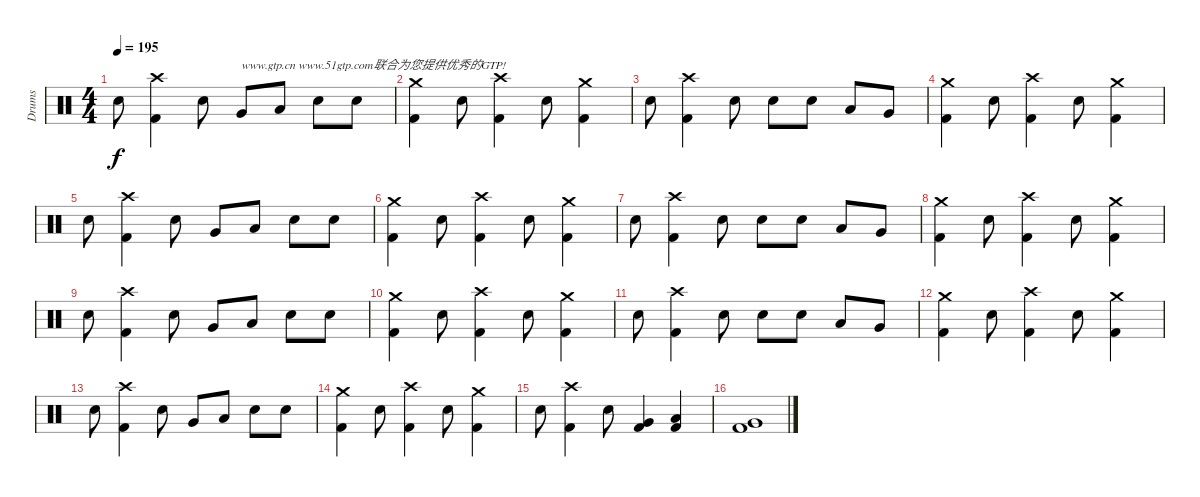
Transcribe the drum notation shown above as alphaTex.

\track ("Drums" "Drums") {instrument percussion}
\staff {score}
\articulation defaults
\ts (4 4)
\tempo 195
\clef neutral
\ks c "Snare (hit) 2".8{dy f}
("Crash high (hit)" "Kick (hit) 2").4 "Snare (hit) 2".8 "Very Low Tom (hit)".8{txt "www.gtp.cn www.51gtp.com联合为您提供优秀的GTP!"} "Low Tom (hit)".8 "Snare (hit) 2".8 "Snare (hit) 2".8 |
("Crash medium (hit)" "Kick (hit) 2").4 "Snare (hit) 2".8 ("Crash high (hit)" "Kick (hit) 2").4 "Snare (hit) 2".8 ("Crash medium (hit)" "Kick (hit) 2").4 |
"Snare (hit) 2".8 ("Crash high (hit)" "Kick (hit) 2").4 "Snare (hit) 2".8 "Snare (hit) 2".8 "Snare (hit) 2".8 "Low Tom (hit)".8 "Very Low Tom (hit)".8 |
("Crash medium (hit)" "Kick (hit) 2").4 "Snare (hit) 2".8 ("Crash high (hit)" "Kick (hit) 2").4 "Snare (hit) 2".8 ("Crash medium (hit)" "Kick (hit) 2").4 |
"Snare (hit) 2".8 ("Crash high (hit)" "Kick (hit) 2").4 "Snare (hit) 2".8 "Very Low Tom (hit)".8 "Low Tom (hit)".8 "Snare (hit) 2".8 "Snare (hit) 2".8 |
("Crash medium (hit)" "Kick (hit) 2").4 "Snare (hit) 2".8 ("Crash high (hit)" "Kick (hit) 2").4 "Snare (hit) 2".8 ("Crash medium (hit)" "Kick (hit) 2").4 |
"Snare (hit) 2".8 ("Crash high (hit)" "Kick (hit) 2").4 "Snare (hit) 2".8 "Snare (hit) 2".8 "Snare (hit) 2".8 "Low Tom (hit)".8 "Very Low Tom (hit)".8 |
("Crash medium (hit)" "Kick (hit) 2").4 "Snare (hit) 2".8 ("Crash high (hit)" "Kick (hit) 2").4 "Snare (hit) 2".8 ("Crash medium (hit)" "Kick (hit) 2").4 |
"Snare (hit) 2".8 ("Crash high (hit)" "Kick (hit) 2").4 "Snare (hit) 2".8 "Very Low Tom (hit)".8 "Low Tom (hit)".8 "Snare (hit) 2".8 "Snare (hit) 2".8 |
("Crash medium (hit)" "Kick (hit) 2").4 "Snare (hit) 2".8 ("Crash high (hit)" "Kick (hit) 2").4 "Snare (hit) 2".8 ("Crash medium (hit)" "Kick (hit) 2").4 |
"Snare (hit) 2".8 ("Crash high (hit)" "Kick (hit) 2").4 "Snare (hit) 2".8 "Snare (hit) 2".8 "Snare (hit) 2".8 "Low Tom (hit)".8 "Very Low Tom (hit)".8 |
("Crash medium (hit)" "Kick (hit) 2").4 "Snare (hit) 2".8 ("Crash high (hit)" "Kick (hit) 2").4 "Snare (hit) 2".8 ("Crash medium (hit)" "Kick (hit) 2").4 |
"Snare (hit) 2".8 ("Crash high (hit)" "Kick (hit) 2").4 "Snare (hit) 2".8 "Very Low Tom (hit)".8 "Low Tom (hit)".8 "Snare (hit) 2".8 "Snare (hit) 2".8 |
("Crash medium (hit)" "Kick (hit) 2").4 "Snare (hit) 2".8 ("Crash high (hit)" "Kick (hit) 2").4 "Snare (hit) 2".8 ("Crash medium (hit)" "Kick (hit) 2").4 |
"Snare (hit) 2".8 ("Crash high (hit)" "Kick (hit) 2").4 "Snare (hit) 2".8 ("Very Low Tom (hit)" "Kick (hit) 2").4 ("Low Tom (hit)" "Kick (hit) 2").4 |
("Very Low Tom (hit)" "Kick (hit) 2").1
